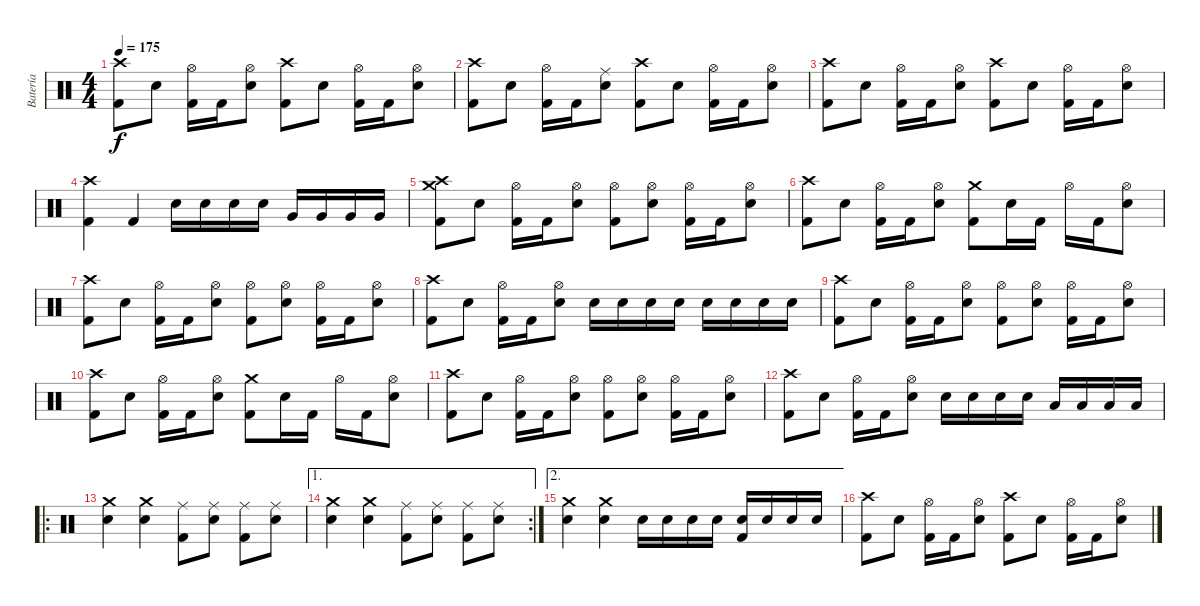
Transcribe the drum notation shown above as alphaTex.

\track ("Batería" "Batería") {instrument percussion}
\staff {score}
\articulation defaults
\ts (4 4)
\tempo 175
\clef neutral
\ks c
("Crash high (hit)" "Kick (hit) 2").8{dy f} "Electric Snare (hit)".8 ("Hi-Hat (open)" "Kick (hit) 2").16 "Kick (hit) 2".16 ("Hi-Hat (open)" "Electric Snare (hit)").8 ("Crash high (hit)" "Kick (hit) 2").8 "Electric Snare (hit)".8 ("Hi-Hat (open)" "Kick (hit) 2").16 "Kick (hit) 2".16 ("Hi-Hat (open)" "Electric Snare (hit)").8 |
("Crash high (hit)" "Kick (hit) 2").8 "Electric Snare (hit)".8 ("Hi-Hat (open)" "Kick (hit) 2").16 "Kick (hit) 2".16 ("Ride (middle)" "Electric Snare (hit)").8 ("Crash high (hit)" "Kick (hit) 2").8 "Electric Snare (hit)".8 ("Hi-Hat (open)" "Kick (hit) 2").16 "Kick (hit) 2".16 ("Hi-Hat (open)" "Electric Snare (hit)").8 |
("Crash high (hit)" "Kick (hit) 2").8 "Electric Snare (hit)".8 ("Hi-Hat (open)" "Kick (hit) 2").16 "Kick (hit) 2".16 ("Hi-Hat (open)" "Electric Snare (hit)").8 ("Crash high (hit)" "Kick (hit) 2").8 "Electric Snare (hit)".8 ("Hi-Hat (open)" "Kick (hit) 2").16 "Kick (hit) 2".16 ("Hi-Hat (open)" "Electric Snare (hit)").8 |
("Crash high (hit)" "Kick (hit) 2").4 "Kick (hit) 2".4 "Electric Snare (hit)".16 "Electric Snare (hit)".16 "Electric Snare (hit)".16 "Electric Snare (hit)".16 "Very Low Tom (hit)".16 "Very Low Tom (hit)".16 "Very Low Tom (hit)".16 "Very Low Tom (hit)".16 |
("Crash high (hit)" "Crash medium (hit)" "Kick (hit) 2").8 "Electric Snare (hit)".8 ("Hi-Hat (open)" "Kick (hit) 2").16 "Kick (hit) 2".16 ("Hi-Hat (open)" "Electric Snare (hit)").8 ("Hi-Hat (open)" "Kick (hit) 2").8 ("Hi-Hat (open)" "Electric Snare (hit)").8 ("Hi-Hat (open)" "Kick (hit) 2").16 "Kick (hit) 2".16 ("Hi-Hat (open)" "Electric Snare (hit)").8 |
("Crash high (hit)" "Kick (hit) 2").8 "Electric Snare (hit)".8 ("Hi-Hat (open)" "Kick (hit) 2").16 "Kick (hit) 2".16 ("Hi-Hat (open)" "Electric Snare (hit)").8 ("Crash medium (hit)" "Kick (hit) 2").8 "Electric Snare (hit)".16 "Kick (hit) 2".16 "Hi-Hat (open)".16 "Kick (hit) 2".16 ("Hi-Hat (open)" "Electric Snare (hit)").8 |
("Crash high (hit)" "Kick (hit) 2").8 "Electric Snare (hit)".8 ("Hi-Hat (open)" "Kick (hit) 2").16 "Kick (hit) 2".16 ("Hi-Hat (open)" "Electric Snare (hit)").8 ("Hi-Hat (open)" "Kick (hit) 2").8 ("Hi-Hat (open)" "Electric Snare (hit)").8 ("Hi-Hat (open)" "Kick (hit) 2").16 "Kick (hit) 2".16 ("Hi-Hat (open)" "Electric Snare (hit)").8 |
("Crash high (hit)" "Kick (hit) 2").8 "Electric Snare (hit)".8 ("Hi-Hat (open)" "Kick (hit) 2").16 "Kick (hit) 2".16 ("Hi-Hat (open)" "Electric Snare (hit)").8 "Electric Snare (hit)".16 "Electric Snare (hit)".16 "Electric Snare (hit)".16 "Electric Snare (hit)".16 "Electric Snare (hit)".16 "Electric Snare (hit)".16 "Electric Snare (hit)".16 "Electric Snare (hit)".16 |
("Crash high (hit)" "Kick (hit) 2").8 "Electric Snare (hit)".8 ("Hi-Hat (open)" "Kick (hit) 2").16 "Kick (hit) 2".16 ("Hi-Hat (open)" "Electric Snare (hit)").8 ("Hi-Hat (open)" "Kick (hit) 2").8 ("Hi-Hat (open)" "Electric Snare (hit)").8 ("Hi-Hat (open)" "Kick (hit) 2").16 "Kick (hit) 2".16 ("Hi-Hat (open)" "Electric Snare (hit)").8 |
("Crash high (hit)" "Kick (hit) 2").8 "Electric Snare (hit)".8 ("Hi-Hat (open)" "Kick (hit) 2").16 "Kick (hit) 2".16 ("Hi-Hat (open)" "Electric Snare (hit)").8 ("Crash medium (hit)" "Kick (hit) 2").8 "Electric Snare (hit)".16 "Kick (hit) 2".16 "Hi-Hat (open)".16 "Kick (hit) 2".16 ("Hi-Hat (open)" "Electric Snare (hit)").8 |
("Crash high (hit)" "Kick (hit) 2").8 "Electric Snare (hit)".8 ("Hi-Hat (open)" "Kick (hit) 2").16 "Kick (hit) 2".16 ("Hi-Hat (open)" "Electric Snare (hit)").8 ("Hi-Hat (open)" "Kick (hit) 2").8 ("Hi-Hat (open)" "Electric Snare (hit)").8 ("Hi-Hat (open)" "Kick (hit) 2").16 "Kick (hit) 2".16 ("Hi-Hat (open)" "Electric Snare (hit)").8 |
("Crash high (hit)" "Kick (hit) 2").8 "Electric Snare (hit)".8 ("Hi-Hat (open)" "Kick (hit) 2").16 "Kick (hit) 2".16 ("Hi-Hat (open)" "Electric Snare (hit)").8 "Electric Snare (hit)".16 "Electric Snare (hit)".16 "Electric Snare (hit)".16 "Electric Snare (hit)".16 "Low Tom (hit)".16 "Low Tom (hit)".16 "Low Tom (hit)".16 "Low Tom (hit)".16 |
\ro
("Crash medium (hit)" "Electric Snare (hit)").4 ("Crash medium (hit)" "Electric Snare (hit)").4 ("Ride (middle)" "Kick (hit) 2").8 ("Ride (middle)" "Electric Snare (hit)").8 ("Ride (middle)" "Kick (hit) 2").8 ("Ride (middle)" "Electric Snare (hit)").8 |
\ae 1
\rc 2
("Crash medium (hit)" "Electric Snare (hit)").4 ("Crash medium (hit)" "Electric Snare (hit)").4 ("Ride (middle)" "Kick (hit) 2").8 ("Ride (middle)" "Electric Snare (hit)").8 ("Ride (middle)" "Kick (hit) 2").8 ("Ride (middle)" "Electric Snare (hit)").8 |
\ae 2
("Crash medium (hit)" "Electric Snare (hit)").4 ("Crash medium (hit)" "Electric Snare (hit)").4 "Electric Snare (hit)".16 "Electric Snare (hit)".16 "Electric Snare (hit)".16 "Electric Snare (hit)".16 ("Electric Snare (hit)" "Kick (hit) 2").16 "Electric Snare (hit)".16 "Electric Snare (hit)".16 "Electric Snare (hit)".16 |
("Crash high (hit)" "Kick (hit) 2").8 "Electric Snare (hit)".8 ("Hi-Hat (open)" "Kick (hit) 2").16 "Kick (hit) 2".16 ("Hi-Hat (open)" "Electric Snare (hit)").8 ("Crash high (hit)" "Kick (hit) 2").8 "Electric Snare (hit)".8 ("Hi-Hat (open)" "Kick (hit) 2").16 "Kick (hit) 2".16 ("Hi-Hat (open)" "Electric Snare (hit)").8
